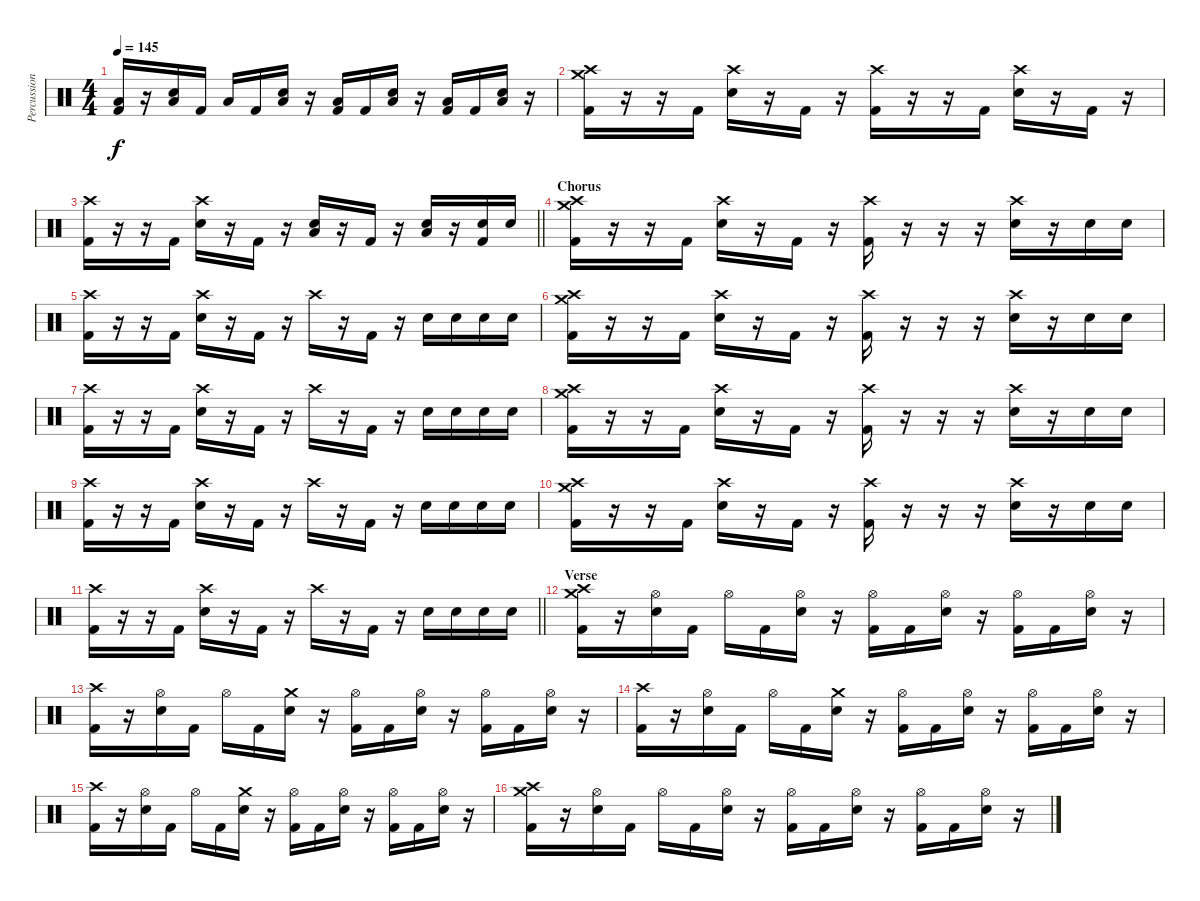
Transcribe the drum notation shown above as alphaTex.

\track ("Percussion" "Percussion") {instrument percussion}
\staff {score}
\articulation defaults
\ts (4 4)
\tempo 145
\clef neutral
\ks c
("Low Floor Tom (hit)" "Kick (hit) 2").16{dy f} r.16 ("Electric Snare (hit)" "Low Floor Tom (hit)").16 "Kick (hit) 2".16 "Low Floor Tom (hit)".16 "Kick (hit) 2".16 ("Electric Snare (hit)" "Low Floor Tom (hit)").16 r.16 ("Low Floor Tom (hit)" "Kick (hit) 2").16 "Kick (hit) 2".16 ("Electric Snare (hit)" "Low Floor Tom (hit)").16 r.16 ("Low Floor Tom (hit)" "Kick (hit) 2").16 "Kick (hit) 2".16 ("Electric Snare (hit)" "Low Floor Tom (hit)").16 r.16 |
("Crash medium (hit)" "Crash high (hit)" "Kick (hit) 2").16 r.16 r.16 "Kick (hit) 2".16 ("Crash high (hit)" "Electric Snare (hit)").16 r.16 "Kick (hit) 2".16 r.16 ("Crash high (hit)" "Kick (hit) 2").16 r.16 r.16 "Kick (hit) 2".16 ("Crash high (hit)" "Electric Snare (hit)").16 r.16 "Kick (hit) 2".16 r.16 |
\barLineRight lightlight
("Crash high (hit)" "Kick (hit) 2").16 r.16 r.16 "Kick (hit) 2".16 ("Crash high (hit)" "Electric Snare (hit)").16 r.16 "Kick (hit) 2".16 r.16 ("Electric Snare (hit)" "Low Floor Tom (hit)").16 r.16 "Kick (hit) 2".16 r.16 ("Electric Snare (hit)" "Low Floor Tom (hit)").16 r.16 ("Electric Snare (hit)" "Kick (hit) 2").16 "Electric Snare (hit)".16 |
\section ("" "Chorus")
("Crash medium (hit)" "Crash high (hit)" "Kick (hit) 2").16 r.16 r.16 "Kick (hit) 2".16 ("Crash high (hit)" "Electric Snare (hit)").16 r.16 "Kick (hit) 2".16 r.16 ("Crash high (hit)" "Kick (hit) 2").16 r.16 r.16 r.16 ("Crash high (hit)" "Electric Snare (hit)").16 r.16 "Electric Snare (hit)".16 "Electric Snare (hit)".16 |
("Crash high (hit)" "Kick (hit) 2").16 r.16 r.16 "Kick (hit) 2".16 ("Crash high (hit)" "Electric Snare (hit)").16 r.16 "Kick (hit) 2".16 r.16 "Crash high (hit)".16 r.16 "Kick (hit) 2".16 r.16 "Electric Snare (hit)".16 "Electric Snare (hit)".16 "Electric Snare (hit)".16 "Electric Snare (hit)".16 |
("Crash medium (hit)" "Crash high (hit)" "Kick (hit) 2").16 r.16 r.16 "Kick (hit) 2".16 ("Crash high (hit)" "Electric Snare (hit)").16 r.16 "Kick (hit) 2".16 r.16 ("Crash high (hit)" "Kick (hit) 2").16 r.16 r.16 r.16 ("Crash high (hit)" "Electric Snare (hit)").16 r.16 "Electric Snare (hit)".16 "Electric Snare (hit)".16 |
("Crash high (hit)" "Kick (hit) 2").16 r.16 r.16 "Kick (hit) 2".16 ("Crash high (hit)" "Electric Snare (hit)").16 r.16 "Kick (hit) 2".16 r.16 "Crash high (hit)".16 r.16 "Kick (hit) 2".16 r.16 "Electric Snare (hit)".16 "Electric Snare (hit)".16 "Electric Snare (hit)".16 "Electric Snare (hit)".16 |
("Crash medium (hit)" "Crash high (hit)" "Kick (hit) 2").16 r.16 r.16 "Kick (hit) 2".16 ("Crash high (hit)" "Electric Snare (hit)").16 r.16 "Kick (hit) 2".16 r.16 ("Crash high (hit)" "Kick (hit) 2").16 r.16 r.16 r.16 ("Crash high (hit)" "Electric Snare (hit)").16 r.16 "Electric Snare (hit)".16 "Electric Snare (hit)".16 |
("Crash high (hit)" "Kick (hit) 2").16 r.16 r.16 "Kick (hit) 2".16 ("Crash high (hit)" "Electric Snare (hit)").16 r.16 "Kick (hit) 2".16 r.16 "Crash high (hit)".16 r.16 "Kick (hit) 2".16 r.16 "Electric Snare (hit)".16 "Electric Snare (hit)".16 "Electric Snare (hit)".16 "Electric Snare (hit)".16 |
("Crash medium (hit)" "Crash high (hit)" "Kick (hit) 2").16 r.16 r.16 "Kick (hit) 2".16 ("Crash high (hit)" "Electric Snare (hit)").16 r.16 "Kick (hit) 2".16 r.16 ("Crash high (hit)" "Kick (hit) 2").16 r.16 r.16 r.16 ("Crash high (hit)" "Electric Snare (hit)").16 r.16 "Electric Snare (hit)".16 "Electric Snare (hit)".16 |
\barLineRight lightlight
("Crash high (hit)" "Kick (hit) 2").16 r.16 r.16 "Kick (hit) 2".16 ("Crash high (hit)" "Electric Snare (hit)").16 r.16 "Kick (hit) 2".16 r.16 "Crash high (hit)".16 r.16 "Kick (hit) 2".16 r.16 "Electric Snare (hit)".16 "Electric Snare (hit)".16 "Electric Snare (hit)".16 "Electric Snare (hit)".16 |
\section ("" "Verse")
("Crash high (hit)" "Crash medium (hit)" "Kick (hit) 2").16 r.16 ("Hi-Hat (open)" "Electric Snare (hit)").16 "Kick (hit) 2".16 "Hi-Hat (open)".16 "Kick (hit) 2".16 ("Hi-Hat (open)" "Electric Snare (hit)").16 r.16 ("Hi-Hat (open)" "Kick (hit) 2").16 "Kick (hit) 2".16 ("Hi-Hat (open)" "Electric Snare (hit)").16 r.16 ("Hi-Hat (open)" "Kick (hit) 2").16 "Kick (hit) 2".16 ("Hi-Hat (open)" "Electric Snare (hit)").16 r.16 |
("Crash high (hit)" "Kick (hit) 2").16 r.16 ("Hi-Hat (open)" "Electric Snare (hit)").16 "Kick (hit) 2".16 "Hi-Hat (open)".16 "Kick (hit) 2".16 ("Crash medium (hit)" "Electric Snare (hit)").16 r.16 ("Hi-Hat (open)" "Kick (hit) 2").16 "Kick (hit) 2".16 ("Hi-Hat (open)" "Electric Snare (hit)").16 r.16 ("Hi-Hat (open)" "Kick (hit) 2").16 "Kick (hit) 2".16 ("Hi-Hat (open)" "Electric Snare (hit)").16 r.16 |
("Crash high (hit)" "Kick (hit) 2").16 r.16 ("Hi-Hat (open)" "Electric Snare (hit)").16 "Kick (hit) 2".16 "Hi-Hat (open)".16 "Kick (hit) 2".16 ("Crash medium (hit)" "Electric Snare (hit)").16 r.16 ("Hi-Hat (open)" "Kick (hit) 2").16 "Kick (hit) 2".16 ("Hi-Hat (open)" "Electric Snare (hit)").16 r.16 ("Hi-Hat (open)" "Kick (hit) 2").16 "Kick (hit) 2".16 ("Hi-Hat (open)" "Electric Snare (hit)").16 r.16 |
("Crash high (hit)" "Kick (hit) 2").16 r.16 ("Hi-Hat (open)" "Electric Snare (hit)").16 "Kick (hit) 2".16 "Hi-Hat (open)".16 "Kick (hit) 2".16 ("Crash medium (hit)" "Electric Snare (hit)").16 r.16 ("Hi-Hat (open)" "Kick (hit) 2").16 "Kick (hit) 2".16 ("Hi-Hat (open)" "Electric Snare (hit)").16 r.16 ("Hi-Hat (open)" "Kick (hit) 2").16 "Kick (hit) 2".16 ("Hi-Hat (open)" "Electric Snare (hit)").16 r.16 |
("Crash high (hit)" "Crash medium (hit)" "Kick (hit) 2").16 r.16 ("Hi-Hat (open)" "Electric Snare (hit)").16 "Kick (hit) 2".16 "Hi-Hat (open)".16 "Kick (hit) 2".16 ("Hi-Hat (open)" "Electric Snare (hit)").16 r.16 ("Hi-Hat (open)" "Kick (hit) 2").16 "Kick (hit) 2".16 ("Hi-Hat (open)" "Electric Snare (hit)").16 r.16 ("Hi-Hat (open)" "Kick (hit) 2").16 "Kick (hit) 2".16 ("Hi-Hat (open)" "Electric Snare (hit)").16 r.16
